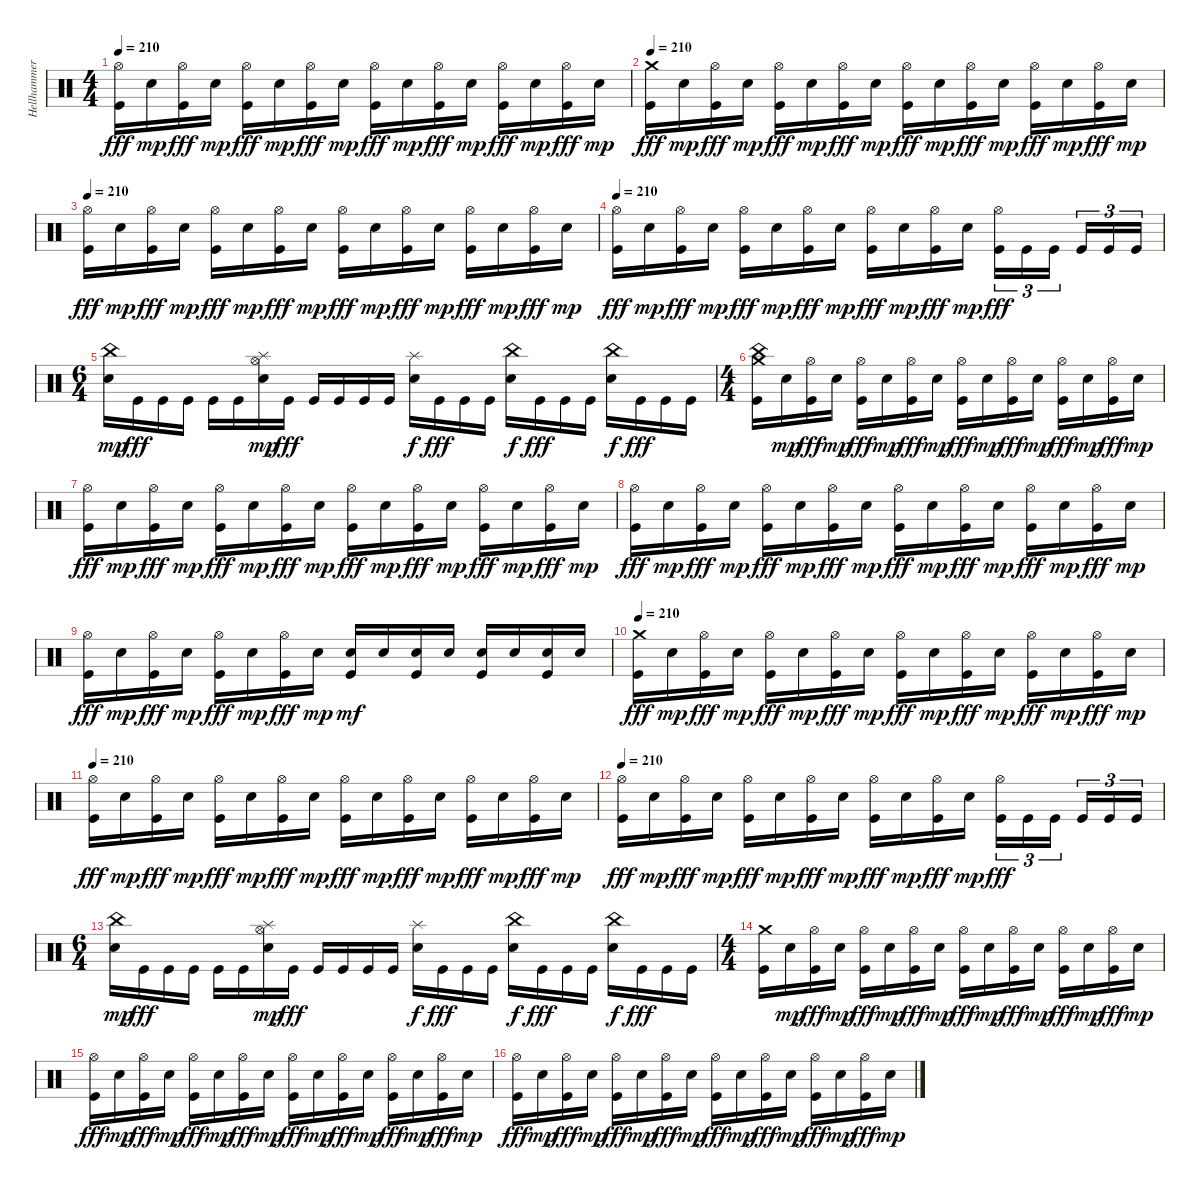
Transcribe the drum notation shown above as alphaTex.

\track ("Hellhammer" "Hellhammer") {instrument percussion}
\staff {score}
\articulation defaults
\ts (4 4)
\tempo 210
\clef neutral
\ks c
("Hi-Hat (open)" "Kick (hit)").16{dy fff} "Electric Snare (hit)".16{dy mp} ("Hi-Hat (open)" "Kick (hit)").16{dy fff} "Electric Snare (hit)".16{dy mp} ("Hi-Hat (open)" "Kick (hit)").16{dy fff} "Electric Snare (hit)".16{dy mp} ("Hi-Hat (open)" "Kick (hit)").16{dy fff} "Electric Snare (hit)".16{dy mp} ("Hi-Hat (open)" "Kick (hit)").16{dy fff} "Electric Snare (hit)".16{dy mp} ("Hi-Hat (open)" "Kick (hit)").16{dy fff} "Electric Snare (hit)".16{dy mp} ("Hi-Hat (open)" "Kick (hit)").16{dy fff} "Electric Snare (hit)".16{dy mp} ("Hi-Hat (open)" "Kick (hit)").16{dy fff} "Electric Snare (hit)".16{dy mp} |
\tempo 210
("Crash medium (hit)" "Kick (hit)").16{dy fff} "Electric Snare (hit)".16{dy mp} ("Hi-Hat (open)" "Kick (hit)").16{dy fff} "Electric Snare (hit)".16{dy mp} ("Hi-Hat (open)" "Kick (hit)").16{dy fff} "Electric Snare (hit)".16{dy mp} ("Hi-Hat (open)" "Kick (hit)").16{dy fff} "Electric Snare (hit)".16{dy mp} ("Hi-Hat (open)" "Kick (hit)").16{dy fff} "Electric Snare (hit)".16{dy mp} ("Hi-Hat (open)" "Kick (hit)").16{dy fff} "Electric Snare (hit)".16{dy mp} ("Hi-Hat (open)" "Kick (hit)").16{dy fff} "Electric Snare (hit)".16{dy mp} ("Hi-Hat (open)" "Kick (hit)").16{dy fff} "Electric Snare (hit)".16{dy mp} |
\tempo 210
("Hi-Hat (open)" "Kick (hit)").16{dy fff} "Electric Snare (hit)".16{dy mp} ("Hi-Hat (open)" "Kick (hit)").16{dy fff} "Electric Snare (hit)".16{dy mp} ("Hi-Hat (open)" "Kick (hit)").16{dy fff} "Electric Snare (hit)".16{dy mp} ("Hi-Hat (open)" "Kick (hit)").16{dy fff} "Electric Snare (hit)".16{dy mp} ("Hi-Hat (open)" "Kick (hit)").16{dy fff} "Electric Snare (hit)".16{dy mp} ("Hi-Hat (open)" "Kick (hit)").16{dy fff} "Electric Snare (hit)".16{dy mp} ("Hi-Hat (open)" "Kick (hit)").16{dy fff} "Electric Snare (hit)".16{dy mp} ("Hi-Hat (open)" "Kick (hit)").16{dy fff} "Electric Snare (hit)".16{dy mp} |
\tempo 210
("Hi-Hat (open)" "Kick (hit)").16{dy fff} "Electric Snare (hit)".16{dy mp} ("Hi-Hat (open)" "Kick (hit)").16{dy fff} "Electric Snare (hit)".16{dy mp} ("Hi-Hat (open)" "Kick (hit)").16{dy fff} "Electric Snare (hit)".16{dy mp} ("Hi-Hat (open)" "Kick (hit)").16{dy fff} "Electric Snare (hit)".16{dy mp} ("Hi-Hat (open)" "Kick (hit)").16{dy fff} "Electric Snare (hit)".16{dy mp} ("Hi-Hat (open)" "Kick (hit)").16{dy fff} "Electric Snare (hit)".16{dy mp} ("Hi-Hat (open)" "Kick (hit)").16{tu (3 2) dy fff} "Kick (hit)".16{tu (3 2)} "Kick (hit)".16{tu (3 2)} "Kick (hit)".16{tu (3 2)} "Kick (hit)".16{tu (3 2)} "Kick (hit)".16{tu (3 2)} |
\ts (6 4)
("China (hit)" "Electric Snare (hit)").16{dy mp} "Kick (hit)".16{dy fff} "Kick (hit)".16 "Kick (hit)".16 "Kick (hit)".16 "Kick (hit)".16 ("Hi-Hat (open)" "Splash (hit)" "Electric Snare (hit)").16{dy mp} "Kick (hit)".16{dy fff} "Kick (hit)".16 "Kick (hit)".16 "Kick (hit)".16 "Kick (hit)".16 ("Splash (hit)" "Electric Snare (hit)").16{dy f} "Kick (hit)".16{dy fff} "Kick (hit)".16 "Kick (hit)".16 ("China (hit)" "Electric Snare (hit)").16{dy f} "Kick (hit)".16{dy fff} "Kick (hit)".16 "Kick (hit)".16 ("China (hit)" "Electric Snare (hit)").16{dy f} "Kick (hit)".16{dy fff} "Kick (hit)".16 "Kick (hit)".16 |
\ts (4 4)
("China (hit)" "Crash medium (hit)" "Kick (hit)").16 "Electric Snare (hit)".16{dy mp} ("Hi-Hat (open)" "Kick (hit)").16{dy fff} "Electric Snare (hit)".16{dy mp} ("Hi-Hat (open)" "Kick (hit)").16{dy fff} "Electric Snare (hit)".16{dy mp} ("Hi-Hat (open)" "Kick (hit)").16{dy fff} "Electric Snare (hit)".16{dy mp} ("Hi-Hat (open)" "Kick (hit)").16{dy fff} "Electric Snare (hit)".16{dy mp} ("Hi-Hat (open)" "Kick (hit)").16{dy fff} "Electric Snare (hit)".16{dy mp} ("Hi-Hat (open)" "Kick (hit)").16{dy fff} "Electric Snare (hit)".16{dy mp} ("Hi-Hat (open)" "Kick (hit)").16{dy fff} "Electric Snare (hit)".16{dy mp} |
("Hi-Hat (open)" "Kick (hit)").16{dy fff} "Electric Snare (hit)".16{dy mp} ("Hi-Hat (open)" "Kick (hit)").16{dy fff} "Electric Snare (hit)".16{dy mp} ("Hi-Hat (open)" "Kick (hit)").16{dy fff} "Electric Snare (hit)".16{dy mp} ("Hi-Hat (open)" "Kick (hit)").16{dy fff} "Electric Snare (hit)".16{dy mp} ("Hi-Hat (open)" "Kick (hit)").16{dy fff} "Electric Snare (hit)".16{dy mp} ("Hi-Hat (open)" "Kick (hit)").16{dy fff} "Electric Snare (hit)".16{dy mp} ("Hi-Hat (open)" "Kick (hit)").16{dy fff} "Electric Snare (hit)".16{dy mp} ("Hi-Hat (open)" "Kick (hit)").16{dy fff} "Electric Snare (hit)".16{dy mp} |
("Hi-Hat (open)" "Kick (hit)").16{dy fff} "Electric Snare (hit)".16{dy mp} ("Hi-Hat (open)" "Kick (hit)").16{dy fff} "Electric Snare (hit)".16{dy mp} ("Hi-Hat (open)" "Kick (hit)").16{dy fff} "Electric Snare (hit)".16{dy mp} ("Hi-Hat (open)" "Kick (hit)").16{dy fff} "Electric Snare (hit)".16{dy mp} ("Hi-Hat (open)" "Kick (hit)").16{dy fff} "Electric Snare (hit)".16{dy mp} ("Hi-Hat (open)" "Kick (hit)").16{dy fff} "Electric Snare (hit)".16{dy mp} ("Hi-Hat (open)" "Kick (hit)").16{dy fff} "Electric Snare (hit)".16{dy mp} ("Hi-Hat (open)" "Kick (hit)").16{dy fff} "Electric Snare (hit)".16{dy mp} |
("Hi-Hat (open)" "Kick (hit)").16{dy fff} "Electric Snare (hit)".16{dy mp} ("Hi-Hat (open)" "Kick (hit)").16{dy fff} "Electric Snare (hit)".16{dy mp} ("Hi-Hat (open)" "Kick (hit)").16{dy fff} "Electric Snare (hit)".16{dy mp} ("Hi-Hat (open)" "Kick (hit)").16{dy fff} "Electric Snare (hit)".16{dy mp} ("Kick (hit)" "Electric Snare (hit)").16{dy mf} "Electric Snare (hit)".16 ("Kick (hit)" "Electric Snare (hit)").16 "Electric Snare (hit)".16 ("Kick (hit)" "Electric Snare (hit)").16 "Electric Snare (hit)".16 ("Kick (hit)" "Electric Snare (hit)").16 "Electric Snare (hit)".16 |
\tempo 210
("Crash medium (hit)" "Kick (hit)").16{dy fff} "Electric Snare (hit)".16{dy mp} ("Hi-Hat (open)" "Kick (hit)").16{dy fff} "Electric Snare (hit)".16{dy mp} ("Hi-Hat (open)" "Kick (hit)").16{dy fff} "Electric Snare (hit)".16{dy mp} ("Hi-Hat (open)" "Kick (hit)").16{dy fff} "Electric Snare (hit)".16{dy mp} ("Hi-Hat (open)" "Kick (hit)").16{dy fff} "Electric Snare (hit)".16{dy mp} ("Hi-Hat (open)" "Kick (hit)").16{dy fff} "Electric Snare (hit)".16{dy mp} ("Hi-Hat (open)" "Kick (hit)").16{dy fff} "Electric Snare (hit)".16{dy mp} ("Hi-Hat (open)" "Kick (hit)").16{dy fff} "Electric Snare (hit)".16{dy mp} |
\tempo 210
("Hi-Hat (open)" "Kick (hit)").16{dy fff} "Electric Snare (hit)".16{dy mp} ("Hi-Hat (open)" "Kick (hit)").16{dy fff} "Electric Snare (hit)".16{dy mp} ("Hi-Hat (open)" "Kick (hit)").16{dy fff} "Electric Snare (hit)".16{dy mp} ("Hi-Hat (open)" "Kick (hit)").16{dy fff} "Electric Snare (hit)".16{dy mp} ("Hi-Hat (open)" "Kick (hit)").16{dy fff} "Electric Snare (hit)".16{dy mp} ("Hi-Hat (open)" "Kick (hit)").16{dy fff} "Electric Snare (hit)".16{dy mp} ("Hi-Hat (open)" "Kick (hit)").16{dy fff} "Electric Snare (hit)".16{dy mp} ("Hi-Hat (open)" "Kick (hit)").16{dy fff} "Electric Snare (hit)".16{dy mp} |
\tempo 210
("Hi-Hat (open)" "Kick (hit)").16{dy fff} "Electric Snare (hit)".16{dy mp} ("Hi-Hat (open)" "Kick (hit)").16{dy fff} "Electric Snare (hit)".16{dy mp} ("Hi-Hat (open)" "Kick (hit)").16{dy fff} "Electric Snare (hit)".16{dy mp} ("Hi-Hat (open)" "Kick (hit)").16{dy fff} "Electric Snare (hit)".16{dy mp} ("Hi-Hat (open)" "Kick (hit)").16{dy fff} "Electric Snare (hit)".16{dy mp} ("Hi-Hat (open)" "Kick (hit)").16{dy fff} "Electric Snare (hit)".16{dy mp} ("Hi-Hat (open)" "Kick (hit)").16{tu (3 2) dy fff} "Kick (hit)".16{tu (3 2)} "Kick (hit)".16{tu (3 2)} "Kick (hit)".16{tu (3 2)} "Kick (hit)".16{tu (3 2)} "Kick (hit)".16{tu (3 2)} |
\ts (6 4)
("China (hit)" "Electric Snare (hit)").16{dy mp} "Kick (hit)".16{dy fff} "Kick (hit)".16 "Kick (hit)".16 "Kick (hit)".16 "Kick (hit)".16 ("Hi-Hat (open)" "Splash (hit)" "Electric Snare (hit)").16{dy mp} "Kick (hit)".16{dy fff} "Kick (hit)".16 "Kick (hit)".16 "Kick (hit)".16 "Kick (hit)".16 ("Splash (hit)" "Electric Snare (hit)").16{dy f} "Kick (hit)".16{dy fff} "Kick (hit)".16 "Kick (hit)".16 ("China (hit)" "Electric Snare (hit)").16{dy f} "Kick (hit)".16{dy fff} "Kick (hit)".16 "Kick (hit)".16 ("China (hit)" "Electric Snare (hit)").16{dy f} "Kick (hit)".16{dy fff} "Kick (hit)".16 "Kick (hit)".16 |
\ts (4 4)
("Crash medium (hit)" "Kick (hit)").16 "Electric Snare (hit)".16{dy mp} ("Hi-Hat (open)" "Kick (hit)").16{dy fff} "Electric Snare (hit)".16{dy mp} ("Hi-Hat (open)" "Kick (hit)").16{dy fff} "Electric Snare (hit)".16{dy mp} ("Hi-Hat (open)" "Kick (hit)").16{dy fff} "Electric Snare (hit)".16{dy mp} ("Hi-Hat (open)" "Kick (hit)").16{dy fff} "Electric Snare (hit)".16{dy mp} ("Hi-Hat (open)" "Kick (hit)").16{dy fff} "Electric Snare (hit)".16{dy mp} ("Hi-Hat (open)" "Kick (hit)").16{dy fff} "Electric Snare (hit)".16{dy mp} ("Hi-Hat (open)" "Kick (hit)").16{dy fff} "Electric Snare (hit)".16{dy mp} |
("Hi-Hat (open)" "Kick (hit)").16{dy fff} "Electric Snare (hit)".16{dy mp} ("Hi-Hat (open)" "Kick (hit)").16{dy fff} "Electric Snare (hit)".16{dy mp} ("Hi-Hat (open)" "Kick (hit)").16{dy fff} "Electric Snare (hit)".16{dy mp} ("Hi-Hat (open)" "Kick (hit)").16{dy fff} "Electric Snare (hit)".16{dy mp} ("Hi-Hat (open)" "Kick (hit)").16{dy fff} "Electric Snare (hit)".16{dy mp} ("Hi-Hat (open)" "Kick (hit)").16{dy fff} "Electric Snare (hit)".16{dy mp} ("Hi-Hat (open)" "Kick (hit)").16{dy fff} "Electric Snare (hit)".16{dy mp} ("Hi-Hat (open)" "Kick (hit)").16{dy fff} "Electric Snare (hit)".16{dy mp} |
("Hi-Hat (open)" "Kick (hit)").16{dy fff} "Electric Snare (hit)".16{dy mp} ("Hi-Hat (open)" "Kick (hit)").16{dy fff} "Electric Snare (hit)".16{dy mp} ("Hi-Hat (open)" "Kick (hit)").16{dy fff} "Electric Snare (hit)".16{dy mp} ("Hi-Hat (open)" "Kick (hit)").16{dy fff} "Electric Snare (hit)".16{dy mp} ("Hi-Hat (open)" "Kick (hit)").16{dy fff} "Electric Snare (hit)".16{dy mp} ("Hi-Hat (open)" "Kick (hit)").16{dy fff} "Electric Snare (hit)".16{dy mp} ("Hi-Hat (open)" "Kick (hit)").16{dy fff} "Electric Snare (hit)".16{dy mp} ("Hi-Hat (open)" "Kick (hit)").16{dy fff} "Electric Snare (hit)".16{dy mp}
